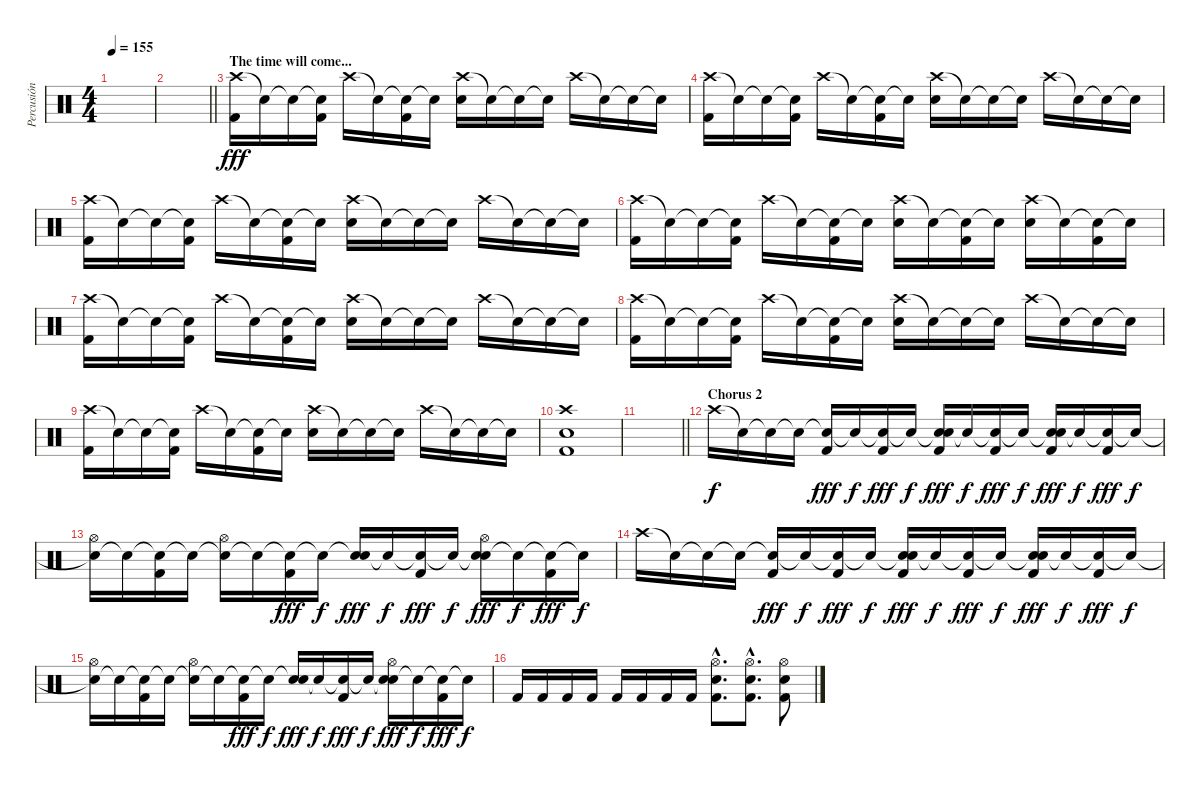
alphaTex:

\track ("Percusión" "Percusión") {instrument percussion}
\staff {score}
\articulation defaults
\ts (4 4)
\tempo 155
\clef neutral
\ks c
|
\barLineRight lightlight
|
\section ("" "The time will come...")
("Crash high (hit)" "Kick (hit) 2").16{dy fff} "Snare (hit)"{t}.16 "Snare (hit)"{t}.16 ("Snare (hit)"{t} "Kick (hit) 2").16 "Crash high (hit)".16 "Snare (hit)"{t}.16 ("Snare (hit)"{t} "Kick (hit) 2").16 "Snare (hit)"{t}.16 ("Crash high (hit)" "Electric Snare (hit)").16 "Snare (hit)"{t}.16 "Snare (hit)"{t}.16 "Snare (hit)"{t}.16 "Crash high (hit)".16 "Snare (hit)"{t}.16 "Snare (hit)"{t}.16 "Snare (hit)"{t}.16 |
("Crash high (hit)" "Kick (hit) 2").16 "Snare (hit)"{t}.16 "Snare (hit)"{t}.16 ("Snare (hit)"{t} "Kick (hit) 2").16 "Crash high (hit)".16 "Snare (hit)"{t}.16 ("Snare (hit)"{t} "Kick (hit) 2").16 "Snare (hit)"{t}.16 ("Crash high (hit)" "Electric Snare (hit)").16 "Snare (hit)"{t}.16 "Snare (hit)"{t}.16 "Snare (hit)"{t}.16 "Crash high (hit)".16 "Snare (hit)"{t}.16 "Snare (hit)"{t}.16 "Snare (hit)"{t}.16 |
("Crash high (hit)" "Kick (hit) 2").16 "Snare (hit)"{t}.16 "Snare (hit)"{t}.16 ("Snare (hit)"{t} "Kick (hit) 2").16 "Crash high (hit)".16 "Snare (hit)"{t}.16 ("Snare (hit)"{t} "Kick (hit) 2").16 "Snare (hit)"{t}.16 ("Crash high (hit)" "Electric Snare (hit)").16 "Snare (hit)"{t}.16 "Snare (hit)"{t}.16 "Snare (hit)"{t}.16 "Crash high (hit)".16 "Snare (hit)"{t}.16 "Snare (hit)"{t}.16 "Snare (hit)"{t}.16 |
("Crash high (hit)" "Kick (hit) 2").16 "Snare (hit)"{t}.16 "Snare (hit)"{t}.16 ("Snare (hit)"{t} "Kick (hit) 2").16 "Crash high (hit)".16 "Snare (hit)"{t}.16 ("Snare (hit)"{t} "Kick (hit) 2").16 "Snare (hit)"{t}.16 ("Crash high (hit)" "Electric Snare (hit)").16 "Snare (hit)"{t}.16 ("Snare (hit)"{t} "Kick (hit) 2").16 "Snare (hit)"{t}.16 ("Crash high (hit)" "Electric Snare (hit)").16 "Snare (hit)"{t}.16 ("Snare (hit)"{t} "Kick (hit) 2").16 "Snare (hit)"{t}.16 |
("Crash high (hit)" "Kick (hit) 2").16 "Snare (hit)"{t}.16 "Snare (hit)"{t}.16 ("Snare (hit)"{t} "Kick (hit) 2").16 "Crash high (hit)".16 "Snare (hit)"{t}.16 ("Snare (hit)"{t} "Kick (hit) 2").16 "Snare (hit)"{t}.16 ("Crash high (hit)" "Electric Snare (hit)").16 "Snare (hit)"{t}.16 "Snare (hit)"{t}.16 "Snare (hit)"{t}.16 "Crash high (hit)".16 "Snare (hit)"{t}.16 "Snare (hit)"{t}.16 "Snare (hit)"{t}.16 |
("Crash high (hit)" "Kick (hit) 2").16 "Snare (hit)"{t}.16 "Snare (hit)"{t}.16 ("Snare (hit)"{t} "Kick (hit) 2").16 "Crash high (hit)".16 "Snare (hit)"{t}.16 ("Snare (hit)"{t} "Kick (hit) 2").16 "Snare (hit)"{t}.16 ("Crash high (hit)" "Electric Snare (hit)").16 "Snare (hit)"{t}.16 "Snare (hit)"{t}.16 "Snare (hit)"{t}.16 "Crash high (hit)".16 "Snare (hit)"{t}.16 "Snare (hit)"{t}.16 "Snare (hit)"{t}.16 |
("Crash high (hit)" "Kick (hit) 2").16 "Snare (hit)"{t}.16 "Snare (hit)"{t}.16 ("Snare (hit)"{t} "Kick (hit) 2").16 "Crash high (hit)".16 "Snare (hit)"{t}.16 ("Snare (hit)"{t} "Kick (hit) 2").16 "Snare (hit)"{t}.16 ("Crash high (hit)" "Electric Snare (hit)").16 "Snare (hit)"{t}.16 "Snare (hit)"{t}.16 "Snare (hit)"{t}.16 "Crash high (hit)".16 "Snare (hit)"{t}.16 "Snare (hit)"{t}.16 "Snare (hit)"{t}.16 |
("Crash high (hit)" "Electric Snare (hit)" "Kick (hit) 2").1 |
\barLineRight lightlight
|
\section ("" "Chorus 2")
"Crash high (hit)".16{dy f} "Snare (hit)"{t}.16 "Snare (hit)"{t}.16 "Snare (hit)"{t}.16 ("Snare (hit)"{t} "Kick (hit) 2").16{dy fff} "Snare (hit)"{t}.16{dy f} ("Snare (hit)"{t} "Kick (hit) 2").16{dy fff} "Snare (hit)"{t}.16{dy f} ("Snare (hit)"{t} "Electric Snare (hit)" "Kick (hit) 2").16{dy fff} "Snare (hit)"{t}.16{dy f} ("Snare (hit)"{t} "Kick (hit) 2").16{dy fff} "Snare (hit)"{t}.16{dy f} ("Snare (hit)"{t} "Electric Snare (hit)" "Kick (hit) 2").16{dy fff} "Snare (hit)"{t}.16{dy f} ("Snare (hit)"{t} "Kick (hit) 2").16{dy fff} "Snare (hit)"{t}.16{dy f} |
("Snare (hit)"{t} "Hi-Hat (open)").16 "Snare (hit)"{t}.16 ("Snare (hit)"{t} "Kick (hit) 2").16 "Snare (hit)"{t}.16 ("Snare (hit)"{t} "Hi-Hat (open)").16 "Snare (hit)"{t}.16 ("Snare (hit)"{t} "Kick (hit) 2").16{dy fff} "Snare (hit)"{t}.16{dy f} ("Snare (hit)"{t} "Electric Snare (hit)").16{dy fff} "Snare (hit)"{t}.16{dy f} ("Snare (hit)"{t} "Kick (hit) 2").16{dy fff} "Snare (hit)"{t}.16{dy f} ("Snare (hit)"{t} "Electric Snare (hit)" "Hi-Hat (open)").16{dy fff} "Snare (hit)"{t}.16{dy f} ("Snare (hit)"{t} "Kick (hit) 2").16{dy fff} "Snare (hit)"{t}.16{dy f} |
"Crash high (hit)".16 "Snare (hit)"{t}.16 "Snare (hit)"{t}.16 "Snare (hit)"{t}.16 ("Snare (hit)"{t} "Kick (hit) 2").16{dy fff} "Snare (hit)"{t}.16{dy f} ("Snare (hit)"{t} "Kick (hit) 2").16{dy fff} "Snare (hit)"{t}.16{dy f} ("Snare (hit)"{t} "Electric Snare (hit)" "Kick (hit) 2").16{dy fff} "Snare (hit)"{t}.16{dy f} ("Snare (hit)"{t} "Kick (hit) 2").16{dy fff} "Snare (hit)"{t}.16{dy f} ("Snare (hit)"{t} "Electric Snare (hit)" "Kick (hit) 2").16{dy fff} "Snare (hit)"{t}.16{dy f} ("Snare (hit)"{t} "Kick (hit) 2").16{dy fff} "Snare (hit)"{t}.16{dy f} |
("Snare (hit)"{t} "Hi-Hat (open)").16 "Snare (hit)"{t}.16 ("Snare (hit)"{t} "Kick (hit) 2").16 "Snare (hit)"{t}.16 ("Snare (hit)"{t} "Hi-Hat (open)").16 "Snare (hit)"{t}.16 ("Snare (hit)"{t} "Kick (hit) 2").16{dy fff} "Snare (hit)"{t}.16{dy f} ("Snare (hit)"{t} "Electric Snare (hit)").16{dy fff} "Snare (hit)"{t}.16{dy f} ("Snare (hit)"{t} "Kick (hit) 2").16{dy fff} "Snare (hit)"{t}.16{dy f} ("Snare (hit)"{t} "Electric Snare (hit)" "Hi-Hat (open)").16{dy fff} "Snare (hit)"{t}.16{dy f} ("Snare (hit)"{t} "Kick (hit) 2").16{dy fff} "Snare (hit)"{t}.16{dy f} |
"Kick (hit) 2".16 "Kick (hit) 2".16 "Kick (hit) 2".16 "Kick (hit) 2".16 "Kick (hit) 2".16 "Kick (hit) 2".16 "Kick (hit) 2".16 "Kick (hit) 2".16 ("Hi-Hat (open)"{hac} "Electric Snare (hit)"{hac} "Kick (hit) 2"{hac}).8{d} ("Hi-Hat (open)"{hac} "Electric Snare (hit)"{hac} "Kick (hit) 2"{hac}).8{d} ("Hi-Hat (open)" "Electric Snare (hit)" "Kick (hit) 2").8
